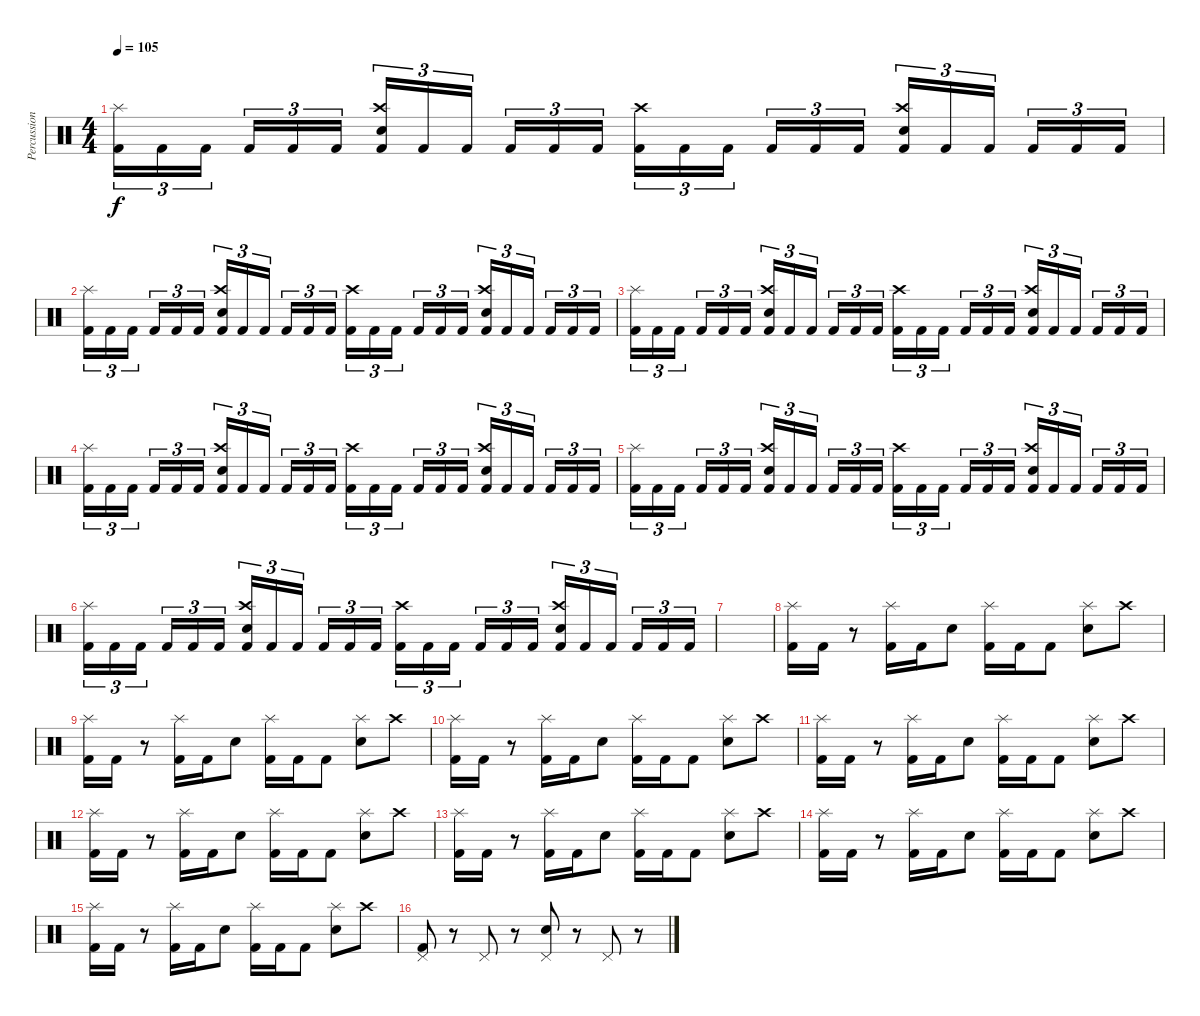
\track ("Percussion" "Percussion") {instrument percussion}
\staff {score}
\articulation defaults
\ts (4 4)
\tempo 105
\clef neutral
\ks c
("Splash (hit)" "Kick (hit) 2").16{tu (3 2) dy f} "Kick (hit) 2".16{tu (3 2)} "Kick (hit) 2".16{tu (3 2)} "Kick (hit) 2".16{tu (3 2)} "Kick (hit) 2".16{tu (3 2)} "Kick (hit) 2".16{tu (3 2)} ("Crash high (hit)" "Snare (hit) 2" "Kick (hit) 2").16{tu (3 2)} "Kick (hit) 2".16{tu (3 2)} "Kick (hit) 2".16{tu (3 2)} "Kick (hit) 2".16{tu (3 2)} "Kick (hit) 2".16{tu (3 2)} "Kick (hit) 2".16{tu (3 2)} ("Crash high (hit)" "Kick (hit) 2").16{tu (3 2)} "Kick (hit) 2".16{tu (3 2)} "Kick (hit) 2".16{tu (3 2)} "Kick (hit) 2".16{tu (3 2)} "Kick (hit) 2".16{tu (3 2)} "Kick (hit) 2".16{tu (3 2)} ("Crash high (hit)" "Snare (hit) 2" "Kick (hit) 2").16{tu (3 2)} "Kick (hit) 2".16{tu (3 2)} "Kick (hit) 2".16{tu (3 2)} "Kick (hit) 2".16{tu (3 2)} "Kick (hit) 2".16{tu (3 2)} "Kick (hit) 2".16{tu (3 2)} |
("Splash (hit)" "Kick (hit) 2").16{tu (3 2)} "Kick (hit) 2".16{tu (3 2)} "Kick (hit) 2".16{tu (3 2)} "Kick (hit) 2".16{tu (3 2)} "Kick (hit) 2".16{tu (3 2)} "Kick (hit) 2".16{tu (3 2)} ("Crash high (hit)" "Snare (hit) 2" "Kick (hit) 2").16{tu (3 2)} "Kick (hit) 2".16{tu (3 2)} "Kick (hit) 2".16{tu (3 2)} "Kick (hit) 2".16{tu (3 2)} "Kick (hit) 2".16{tu (3 2)} "Kick (hit) 2".16{tu (3 2)} ("Crash high (hit)" "Kick (hit) 2").16{tu (3 2)} "Kick (hit) 2".16{tu (3 2)} "Kick (hit) 2".16{tu (3 2)} "Kick (hit) 2".16{tu (3 2)} "Kick (hit) 2".16{tu (3 2)} "Kick (hit) 2".16{tu (3 2)} ("Crash high (hit)" "Snare (hit) 2" "Kick (hit) 2").16{tu (3 2)} "Kick (hit) 2".16{tu (3 2)} "Kick (hit) 2".16{tu (3 2)} "Kick (hit) 2".16{tu (3 2)} "Kick (hit) 2".16{tu (3 2)} "Kick (hit) 2".16{tu (3 2)} |
("Splash (hit)" "Kick (hit) 2").16{tu (3 2)} "Kick (hit) 2".16{tu (3 2)} "Kick (hit) 2".16{tu (3 2)} "Kick (hit) 2".16{tu (3 2)} "Kick (hit) 2".16{tu (3 2)} "Kick (hit) 2".16{tu (3 2)} ("Crash high (hit)" "Snare (hit) 2" "Kick (hit) 2").16{tu (3 2)} "Kick (hit) 2".16{tu (3 2)} "Kick (hit) 2".16{tu (3 2)} "Kick (hit) 2".16{tu (3 2)} "Kick (hit) 2".16{tu (3 2)} "Kick (hit) 2".16{tu (3 2)} ("Crash high (hit)" "Kick (hit) 2").16{tu (3 2)} "Kick (hit) 2".16{tu (3 2)} "Kick (hit) 2".16{tu (3 2)} "Kick (hit) 2".16{tu (3 2)} "Kick (hit) 2".16{tu (3 2)} "Kick (hit) 2".16{tu (3 2)} ("Crash high (hit)" "Snare (hit) 2" "Kick (hit) 2").16{tu (3 2)} "Kick (hit) 2".16{tu (3 2)} "Kick (hit) 2".16{tu (3 2)} "Kick (hit) 2".16{tu (3 2)} "Kick (hit) 2".16{tu (3 2)} "Kick (hit) 2".16{tu (3 2)} |
("Splash (hit)" "Kick (hit) 2").16{tu (3 2)} "Kick (hit) 2".16{tu (3 2)} "Kick (hit) 2".16{tu (3 2)} "Kick (hit) 2".16{tu (3 2)} "Kick (hit) 2".16{tu (3 2)} "Kick (hit) 2".16{tu (3 2)} ("Crash high (hit)" "Snare (hit) 2" "Kick (hit) 2").16{tu (3 2)} "Kick (hit) 2".16{tu (3 2)} "Kick (hit) 2".16{tu (3 2)} "Kick (hit) 2".16{tu (3 2)} "Kick (hit) 2".16{tu (3 2)} "Kick (hit) 2".16{tu (3 2)} ("Crash high (hit)" "Kick (hit) 2").16{tu (3 2)} "Kick (hit) 2".16{tu (3 2)} "Kick (hit) 2".16{tu (3 2)} "Kick (hit) 2".16{tu (3 2)} "Kick (hit) 2".16{tu (3 2)} "Kick (hit) 2".16{tu (3 2)} ("Crash high (hit)" "Snare (hit) 2" "Kick (hit) 2").16{tu (3 2)} "Kick (hit) 2".16{tu (3 2)} "Kick (hit) 2".16{tu (3 2)} "Kick (hit) 2".16{tu (3 2)} "Kick (hit) 2".16{tu (3 2)} "Kick (hit) 2".16{tu (3 2)} |
("Splash (hit)" "Kick (hit) 2").16{tu (3 2)} "Kick (hit) 2".16{tu (3 2)} "Kick (hit) 2".16{tu (3 2)} "Kick (hit) 2".16{tu (3 2)} "Kick (hit) 2".16{tu (3 2)} "Kick (hit) 2".16{tu (3 2)} ("Crash high (hit)" "Snare (hit) 2" "Kick (hit) 2").16{tu (3 2)} "Kick (hit) 2".16{tu (3 2)} "Kick (hit) 2".16{tu (3 2)} "Kick (hit) 2".16{tu (3 2)} "Kick (hit) 2".16{tu (3 2)} "Kick (hit) 2".16{tu (3 2)} ("Crash high (hit)" "Kick (hit) 2").16{tu (3 2)} "Kick (hit) 2".16{tu (3 2)} "Kick (hit) 2".16{tu (3 2)} "Kick (hit) 2".16{tu (3 2)} "Kick (hit) 2".16{tu (3 2)} "Kick (hit) 2".16{tu (3 2)} ("Crash high (hit)" "Snare (hit) 2" "Kick (hit) 2").16{tu (3 2)} "Kick (hit) 2".16{tu (3 2)} "Kick (hit) 2".16{tu (3 2)} "Kick (hit) 2".16{tu (3 2)} "Kick (hit) 2".16{tu (3 2)} "Kick (hit) 2".16{tu (3 2)} |
("Splash (hit)" "Kick (hit) 2").16{tu (3 2)} "Kick (hit) 2".16{tu (3 2)} "Kick (hit) 2".16{tu (3 2)} "Kick (hit) 2".16{tu (3 2)} "Kick (hit) 2".16{tu (3 2)} "Kick (hit) 2".16{tu (3 2)} ("Crash high (hit)" "Snare (hit) 2" "Kick (hit) 2").16{tu (3 2)} "Kick (hit) 2".16{tu (3 2)} "Kick (hit) 2".16{tu (3 2)} "Kick (hit) 2".16{tu (3 2)} "Kick (hit) 2".16{tu (3 2)} "Kick (hit) 2".16{tu (3 2)} ("Crash high (hit)" "Kick (hit) 2").16{tu (3 2)} "Kick (hit) 2".16{tu (3 2)} "Kick (hit) 2".16{tu (3 2)} "Kick (hit) 2".16{tu (3 2)} "Kick (hit) 2".16{tu (3 2)} "Kick (hit) 2".16{tu (3 2)} ("Crash high (hit)" "Snare (hit) 2" "Kick (hit) 2").16{tu (3 2)} "Kick (hit) 2".16{tu (3 2)} "Kick (hit) 2".16{tu (3 2)} "Kick (hit) 2".16{tu (3 2)} "Kick (hit) 2".16{tu (3 2)} "Kick (hit) 2".16{tu (3 2)} |
|
("Splash (hit)" "Kick (hit) 2").16 "Kick (hit) 2".16 r.8 ("Splash (hit)" "Kick (hit) 2").16 "Kick (hit) 2"{x}.16 "Snare (hit) 2".8 ("Splash (hit)" "Kick (hit) 2").16 "Kick (hit) 2".16 "Kick (hit) 2".8 ("Splash (hit)" "Snare (hit) 2").8 "Crash high (hit)".8 |
("Splash (hit)" "Kick (hit) 2").16 "Kick (hit) 2".16 r.8 ("Splash (hit)" "Kick (hit) 2").16 "Kick (hit) 2"{x}.16 "Snare (hit) 2".8 ("Splash (hit)" "Kick (hit) 2").16 "Kick (hit) 2".16 "Kick (hit) 2".8 ("Splash (hit)" "Snare (hit) 2").8 "Crash high (hit)".8 |
("Splash (hit)" "Kick (hit) 2").16 "Kick (hit) 2".16 r.8 ("Splash (hit)" "Kick (hit) 2").16 "Kick (hit) 2"{x}.16 "Snare (hit) 2".8 ("Splash (hit)" "Kick (hit) 2").16 "Kick (hit) 2".16 "Kick (hit) 2".8 ("Splash (hit)" "Snare (hit) 2").8 "Crash high (hit)".8 |
("Splash (hit)" "Kick (hit) 2").16 "Kick (hit) 2".16 r.8 ("Splash (hit)" "Kick (hit) 2").16 "Kick (hit) 2"{x}.16 "Snare (hit) 2".8 ("Splash (hit)" "Kick (hit) 2").16 "Kick (hit) 2".16 "Kick (hit) 2".8 ("Splash (hit)" "Snare (hit) 2").8 "Crash high (hit)".8 |
("Splash (hit)" "Kick (hit) 2").16 "Kick (hit) 2".16 r.8 ("Splash (hit)" "Kick (hit) 2").16 "Kick (hit) 2"{x}.16 "Snare (hit) 2".8 ("Splash (hit)" "Kick (hit) 2").16 "Kick (hit) 2".16 "Kick (hit) 2".8 ("Splash (hit)" "Snare (hit) 2").8 "Crash high (hit)".8 |
("Splash (hit)" "Kick (hit) 2").16 "Kick (hit) 2".16 r.8 ("Splash (hit)" "Kick (hit) 2").16 "Kick (hit) 2"{x}.16 "Snare (hit) 2".8 ("Splash (hit)" "Kick (hit) 2").16 "Kick (hit) 2".16 "Kick (hit) 2".8 ("Splash (hit)" "Snare (hit) 2").8 "Crash high (hit)".8 |
("Splash (hit)" "Kick (hit) 2").16 "Kick (hit) 2".16 r.8 ("Splash (hit)" "Kick (hit) 2").16 "Kick (hit) 2"{x}.16 "Snare (hit) 2".8 ("Splash (hit)" "Kick (hit) 2").16 "Kick (hit) 2".16 "Kick (hit) 2".8 ("Splash (hit)" "Snare (hit) 2").8 "Crash high (hit)".8 |
("Splash (hit)" "Kick (hit) 2").16 "Kick (hit) 2".16 r.8 ("Splash (hit)" "Kick (hit) 2").16 "Kick (hit) 2"{x}.16 "Snare (hit) 2".8 ("Splash (hit)" "Kick (hit) 2").16 "Kick (hit) 2".16 "Kick (hit) 2".8 ("Splash (hit)" "Snare (hit) 2").8 "Crash high (hit)".8 |
("Pedal Hi-Hat (hit)" "Kick (hit) 2").8 r.8 "Pedal Hi-Hat (hit)".8 r.8 ("Pedal Hi-Hat (hit)" "Snare (hit) 2").8 r.8 "Pedal Hi-Hat (hit)".8 r.8
